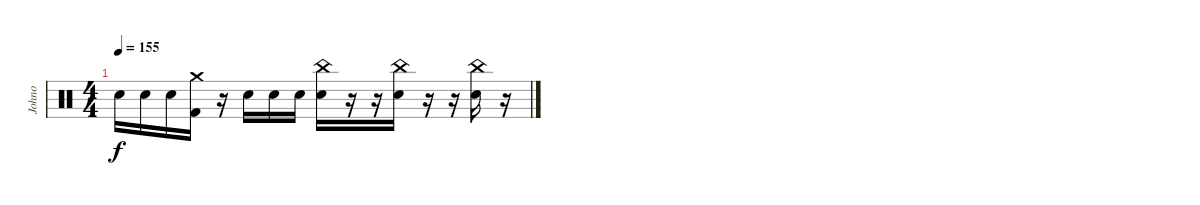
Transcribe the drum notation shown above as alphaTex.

\track ("Johno" "Johno") {instrument percussion}
\staff {score}
\articulation defaults
\ts (4 4)
\tempo 155
\clef neutral
\ks c "Electric Snare (hit)".16{dy f} "Electric Snare (hit)".16 "Electric Snare (hit)".16
("Crash medium (hit)" "Kick (hit) 2").16 r.16 "Electric Snare (hit)".16 "Electric Snare (hit)".16 "Electric Snare (hit)".16 ("China (hit)" "Electric Snare (hit)").16 r.16 r.16 ("China (hit)" "Electric Snare (hit)").16 r.16 r.16 ("China (hit)" "Electric Snare (hit)").16 r.16
